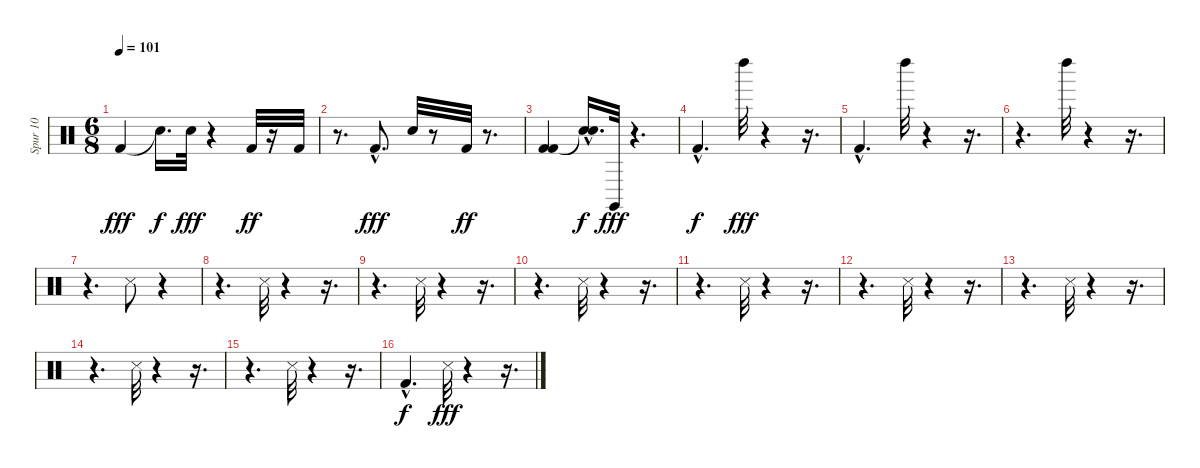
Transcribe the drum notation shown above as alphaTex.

\track ("Spur 10" "Spur 10") {instrument percussion}
\staff {score}
\articulation defaults
\ts (6 8)
\tempo 101
\clef neutral
\ks c "Kick (hit) 2".4{dy fff} "Snare (hit)"{t}.16{d dy f} "Electric Snare (hit)".32{dy fff}
r.4 "Kick (hit) 2".32{dy ff} r.16 "Kick (hit) 2".32 |
r.8{d} "Kick (hit) 2"{hac}.8{d dy fff} "Electric Snare (hit)".32 r.8 "Kick (hit) 2".32{dy ff} r.8{d} |
("Kick (hit) 2" "Kick (hit) 2").4 ("Snare (hit)"{hac t} "Snare (hit)"{t}).16{d dy f} "Claves (hit)".32{dy fff} r.4{d} |
"Kick (hit) 2"{hac}.4{d dy f} "Left Maraca (hit)".32{dy fff} r.4 r.16{d} |
"Kick (hit) 2"{hac}.4{d} "Left Maraca (hit)".32 r.4 r.16{d} |
r.4{d} "Left Maraca (hit)".32 r.4 r.16{d} |
r.4{d} "Snare (side stick) 3".8 r.4 |
r.4{d} "Snare (side stick) 3".32 r.4 r.16{d} |
r.4{d} "Snare (side stick) 3".32 r.4 r.16{d} |
r.4{d} "Snare (side stick) 3".32 r.4 r.16{d} |
r.4{d} "Snare (side stick) 3".32 r.4 r.16{d} |
r.4{d} "Snare (side stick) 3".32 r.4 r.16{d} |
r.4{d} "Snare (side stick) 3".32 r.4 r.16{d} |
r.4{d} "Snare (side stick) 3".32 r.4 r.16{d} |
r.4{d} "Snare (side stick) 3".32 r.4 r.16{d} |
"Kick (hit) 2"{hac}.4{d dy f} "Snare (side stick) 3".32{dy fff} r.4 r.16{d}
